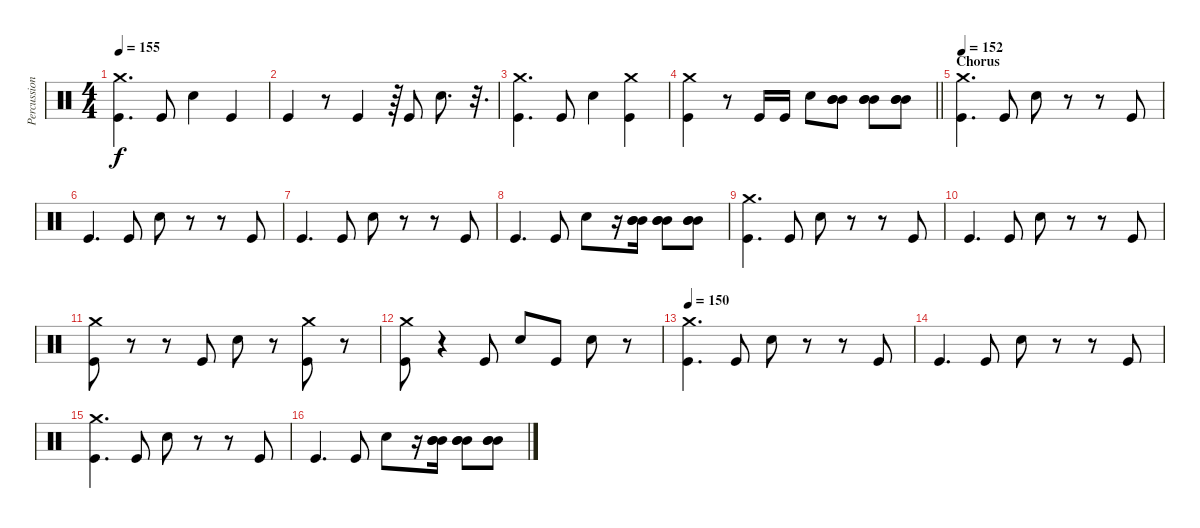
\track ("Percussion" "Percussion") {instrument percussion}
\staff {score}
\articulation defaults
\ts (4 4)
\tempo 155
\clef neutral
\ks c
("Kick (hit)" "Crash medium (hit)").4{d dy f} "Kick (hit)".8 "Electric Snare (hit)".4 "Kick (hit)".4 |
"Kick (hit)".4 r.8 "Kick (hit)".4 r.64 "Kick (hit)".8 "Electric Snare (hit)".8{d} r.32{d} |
("Kick (hit)" "Crash medium (hit)").4{d} "Kick (hit)".8 "Electric Snare (hit)".4 ("Kick (hit)" "Crash medium (hit)").4 |
\barLineRight lightlight
("Kick (hit)" "Crash medium (hit)").4 r.8 "Kick (hit)".16 "Kick (hit)".16 "Electric Snare (hit)".8 ("Mid Tom (hit)" "Mid Tom (hit)" "Mid Tom (hit)").8 ("Mid Tom (hit)" "Mid Tom (hit)" "Mid Tom (hit)").8 ("Mid Tom (hit)" "Mid Tom (hit)" "Mid Tom (hit)").8 |
\section ("" "Chorus")
\tempo 152
("Kick (hit)" "Crash medium (hit)").4{d} "Kick (hit)".8 "Electric Snare (hit)".8 r.8 r.8 "Kick (hit)".8 |
"Kick (hit)".4{d} "Kick (hit)".8 "Electric Snare (hit)".8 r.8 r.8 "Kick (hit)".8 |
"Kick (hit)".4{d} "Kick (hit)".8 "Electric Snare (hit)".8 r.8 r.8 "Kick (hit)".8 |
"Kick (hit)".4{d} "Kick (hit)".8 "Electric Snare (hit)".8 r.16 ("Mid Tom (hit)" "Mid Tom (hit)" "Mid Tom (hit)").16 ("Mid Tom (hit)" "Mid Tom (hit)" "Mid Tom (hit)").8 ("Mid Tom (hit)" "Mid Tom (hit)" "Mid Tom (hit)").8 |
("Kick (hit)" "Crash medium (hit)").4{d} "Kick (hit)".8 "Electric Snare (hit)".8 r.8 r.8 "Kick (hit)".8 |
"Kick (hit)".4{d} "Kick (hit)".8 "Electric Snare (hit)".8 r.8 r.8 "Kick (hit)".8 |
("Kick (hit)" "Crash medium (hit)").8 r.8 r.8 "Kick (hit)".8 "Electric Snare (hit)".8 r.8 ("Kick (hit)" "Crash medium (hit)").8 r.8 |
("Kick (hit)" "Crash medium (hit)").8 r.4 "Kick (hit)".8 "Electric Snare (hit)".8 "Kick (hit)".8 "Electric Snare (hit)".8 r.8 |
\tempo 150
("Kick (hit)" "Crash medium (hit)").4{d} "Kick (hit)".8 "Electric Snare (hit)".8 r.8 r.8 "Kick (hit)".8 |
"Kick (hit)".4{d} "Kick (hit)".8 "Electric Snare (hit)".8 r.8 r.8 "Kick (hit)".8 |
("Kick (hit)" "Crash medium (hit)").4{d} "Kick (hit)".8 "Electric Snare (hit)".8 r.8 r.8 "Kick (hit)".8 |
"Kick (hit)".4{d} "Kick (hit)".8 "Electric Snare (hit)".8 r.16 ("Mid Tom (hit)" "Mid Tom (hit)" "Mid Tom (hit)").16 ("Mid Tom (hit)" "Mid Tom (hit)" "Mid Tom (hit)").8 ("Mid Tom (hit)" "Mid Tom (hit)" "Mid Tom (hit)").8
